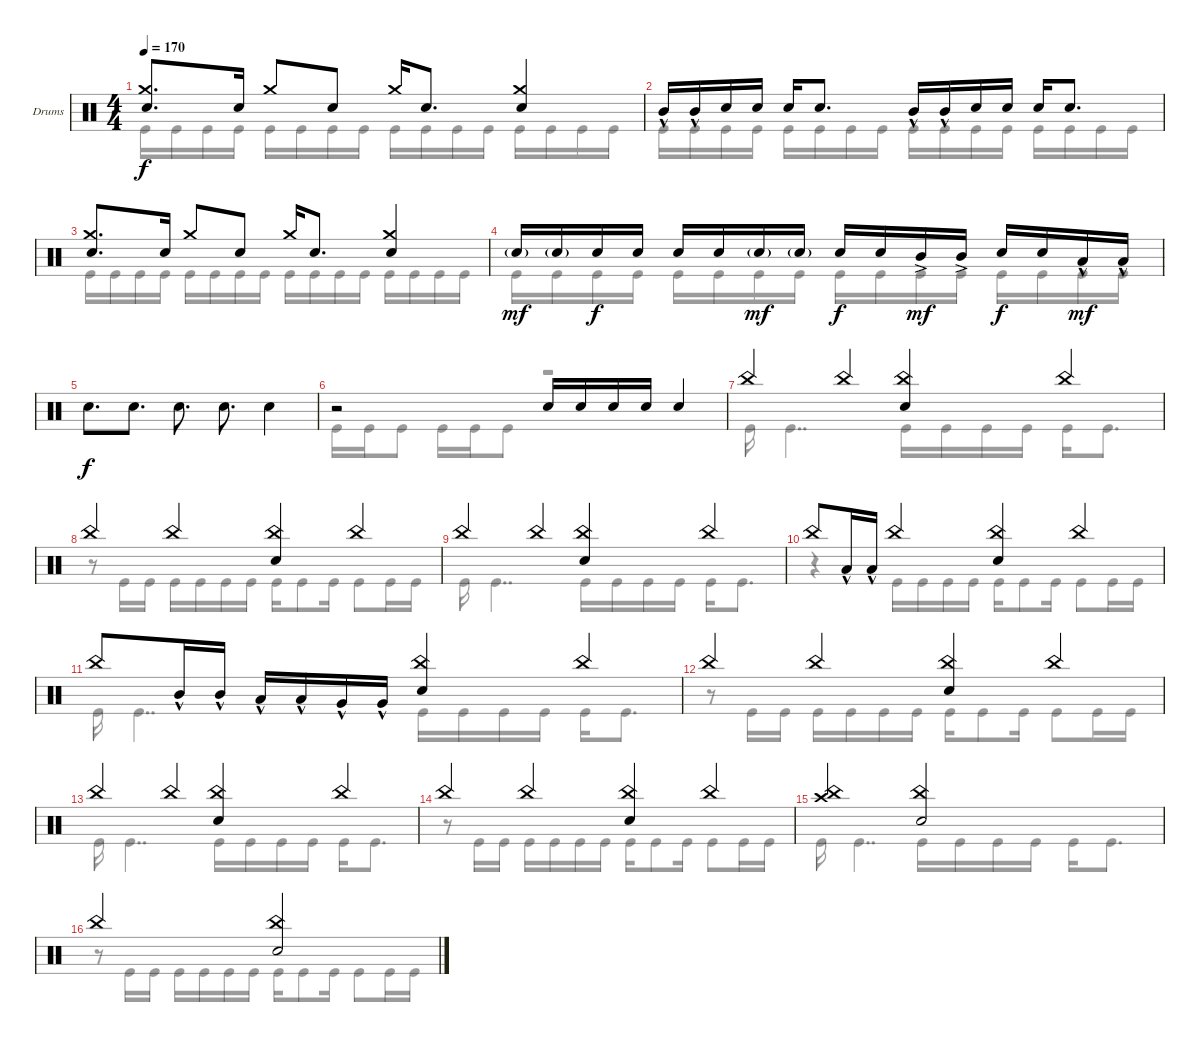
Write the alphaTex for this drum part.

\defaultSystemsLayout 4
\bracketExtendMode groupsimilarinstruments
\firstSystemTrackNameOrientation horizontal
\otherSystemsTrackNameOrientation horizontal
\track ("Drumkit" "Drums") {instrument percussion}
\staff {score}
\articulation defaults
\voice
\ts (4 4)
\tempo 170
\clef neutral
\ks c
("Snare (hit) 2" "Crash medium (hit)").8{d dy f} "Snare (hit) 2".16 "Crash medium (hit)".8 "Snare (hit) 2".8 "Crash medium (hit)".16 "Snare (hit) 2".8{d} ("Snare (hit) 2" "Crash medium (hit)").4 |
"Mid Tom (hit)"{hac}.16 "Mid Tom (hit)"{hac}.16 "Snare (hit) 2".16 "Snare (hit) 2".16 "Snare (hit) 2".16 "Snare (hit) 2".8{d} "Mid Tom (hit)"{hac}.16 "Mid Tom (hit)"{hac}.16 "Snare (hit) 2".16 "Snare (hit) 2".16 "Snare (hit) 2".16 "Snare (hit) 2".8{d} |
("Snare (hit) 2" "Crash medium (hit)").8{d} "Snare (hit) 2".16 "Crash medium (hit)".8 "Snare (hit) 2".8 "Crash medium (hit)".16 "Snare (hit) 2".8{d} ("Snare (hit) 2" "Crash medium (hit)").4 |
"Snare (hit) 2"{g}.16{dy mf} "Snare (hit) 2"{g}.16 "Snare (hit) 2".16{dy f} "Snare (hit) 2".16 "Snare (hit) 2".16 "Snare (hit) 2".16 "Snare (hit) 2"{g}.16{dy mf} "Snare (hit) 2"{g}.16 "Snare (hit) 2".16{dy f} "Snare (hit) 2".16 "Mid Tom (hit)"{ac}.16{dy mf} "Mid Tom (hit)"{ac}.16 "Snare (hit) 2".16{dy f} "Snare (hit) 2".16 "Low Tom (hit)"{hac}.16{dy mf} "Low Tom (hit)"{hac}.16 |
"Snare (hit) 2".8{d dy f} "Snare (hit) 2".8{d} "Snare (hit) 2".8{d} "Snare (hit) 2".8{d} "Snare (hit) 2".4 |
r.2 "Snare (hit) 2".16 "Snare (hit) 2".16 "Snare (hit) 2".16 "Snare (hit) 2".16 "Snare (hit) 2".4 |
"China (hit)".4 "China (hit)".4 ("China (hit)" "Snare (hit) 2").4 "China (hit)".4 |
"China (hit)".4 "China (hit)".4 ("China (hit)" "Snare (hit) 2").4 "China (hit)".4 |
"China (hit)".4 "China (hit)".4 ("China (hit)" "Snare (hit) 2").4 "China (hit)".4 |
"China (hit)".8 "Low Tom (hit)"{hac}.16 "Low Tom (hit)"{hac}.16 "China (hit)".4 ("China (hit)" "Snare (hit) 2").4 "China (hit)".4 |
"China (hit)".8 "Mid Tom (hit)"{hac}.16 "Mid Tom (hit)"{hac}.16 "Low Tom (hit)"{hac}.16 "Low Tom (hit)"{hac}.16 "Very Low Tom (hit)"{hac}.16 "Very Low Tom (hit)"{hac}.16 ("Snare (hit) 2" "China (hit)").4 "China (hit)".4 |
"China (hit)".4 "China (hit)".4 ("China (hit)" "Snare (hit) 2").4 "China (hit)".4 |
"China (hit)".4 "China (hit)".4 ("China (hit)" "Snare (hit) 2").4 "China (hit)".4 |
"China (hit)".4 "China (hit)".4 ("China (hit)" "Snare (hit) 2").4 "China (hit)".4 |
("China (hit)" "Crash high (hit)").2 ("China (hit)" "Snare (hit) 2").2 |
"China (hit)".2 ("China (hit)" "Snare (hit) 2").2
\voice
\clef neutral
\ottava regular
\simile none
\ks c "Kick (hit)".16{dy f} "Kick (hit)".16 "Kick (hit)".16 "Kick (hit)".16 "Kick (hit)".16 "Kick (hit)".16 "Kick (hit)".16 "Kick (hit)".16 "Kick (hit)".16 "Kick (hit)".16 "Kick (hit)".16 "Kick (hit)".16 "Kick (hit)".16 "Kick (hit)".16 "Kick (hit)".16 "Kick (hit)".16
|
"Kick (hit)".16 "Kick (hit)".16 "Kick (hit)".16 "Kick (hit)".16 "Kick (hit)".16 "Kick (hit)".16 "Kick (hit)".16 "Kick (hit)".16 "Kick (hit)".16 "Kick (hit)".16 "Kick (hit)".16 "Kick (hit)".16 "Kick (hit)".16 "Kick (hit)".16 "Kick (hit)".16 "Kick (hit)".16 |
"Kick (hit)".16 "Kick (hit)".16 "Kick (hit)".16 "Kick (hit)".16 "Kick (hit)".16 "Kick (hit)".16 "Kick (hit)".16 "Kick (hit)".16 "Kick (hit)".16 "Kick (hit)".16 "Kick (hit)".16 "Kick (hit)".16 "Kick (hit)".16 "Kick (hit)".16 "Kick (hit)".16 "Kick (hit)".16 |
"Kick (hit)".16 "Kick (hit)".16 "Kick (hit)".16 "Kick (hit)".16 "Kick (hit)".16 "Kick (hit)".16 "Kick (hit)".16 "Kick (hit)".16 "Kick (hit)".16 "Kick (hit)".16 "Kick (hit)".16 "Kick (hit)".16 "Kick (hit)".16 "Kick (hit)".16 "Kick (hit)".16 "Kick (hit)".16 |
|
"Kick (hit)".16 "Kick (hit)".16 "Kick (hit)".8 "Kick (hit)".16 "Kick (hit)".16 "Kick (hit)".8 r.2 |
"Kick (hit)".16 "Kick (hit)".4{dd} "Kick (hit)".16 "Kick (hit)".16 "Kick (hit)".16 "Kick (hit)".16 "Kick (hit)".16 "Kick (hit)".8{d} |
r.8 "Kick (hit)".16 "Kick (hit)".16 "Kick (hit)".16 "Kick (hit)".16 "Kick (hit)".16 "Kick (hit)".16 "Kick (hit)".16 "Kick (hit)".8 "Kick (hit)".16 "Kick (hit)".8 "Kick (hit)".16 "Kick (hit)".16 |
"Kick (hit)".16 "Kick (hit)".4{dd} "Kick (hit)".16 "Kick (hit)".16 "Kick (hit)".16 "Kick (hit)".16 "Kick (hit)".16 "Kick (hit)".8{d} |
r.4 "Kick (hit)".16 "Kick (hit)".16 "Kick (hit)".16 "Kick (hit)".16 "Kick (hit)".16 "Kick (hit)".8 "Kick (hit)".16 "Kick (hit)".8 "Kick (hit)".16 "Kick (hit)".16 |
"Kick (hit)".16 "Kick (hit)".4{dd} "Kick (hit)".16 "Kick (hit)".16 "Kick (hit)".16 "Kick (hit)".16 "Kick (hit)".16 "Kick (hit)".8{d} |
r.8 "Kick (hit)".16 "Kick (hit)".16 "Kick (hit)".16 "Kick (hit)".16 "Kick (hit)".16 "Kick (hit)".16 "Kick (hit)".16 "Kick (hit)".8 "Kick (hit)".16 "Kick (hit)".8 "Kick (hit)".16 "Kick (hit)".16 |
"Kick (hit)".16 "Kick (hit)".4{dd} "Kick (hit)".16 "Kick (hit)".16 "Kick (hit)".16 "Kick (hit)".16 "Kick (hit)".16 "Kick (hit)".8{d} |
r.8 "Kick (hit)".16 "Kick (hit)".16 "Kick (hit)".16 "Kick (hit)".16 "Kick (hit)".16 "Kick (hit)".16 "Kick (hit)".16 "Kick (hit)".8 "Kick (hit)".16 "Kick (hit)".8 "Kick (hit)".16 "Kick (hit)".16 |
"Kick (hit)".16 "Kick (hit)".4{dd} "Kick (hit)".16 "Kick (hit)".16 "Kick (hit)".16 "Kick (hit)".16 "Kick (hit)".16 "Kick (hit)".8{d} |
r.8 "Kick (hit)".16 "Kick (hit)".16 "Kick (hit)".16 "Kick (hit)".16 "Kick (hit)".16 "Kick (hit)".16 "Kick (hit)".16 "Kick (hit)".8 "Kick (hit)".16 "Kick (hit)".8 "Kick (hit)".16 "Kick (hit)".16
